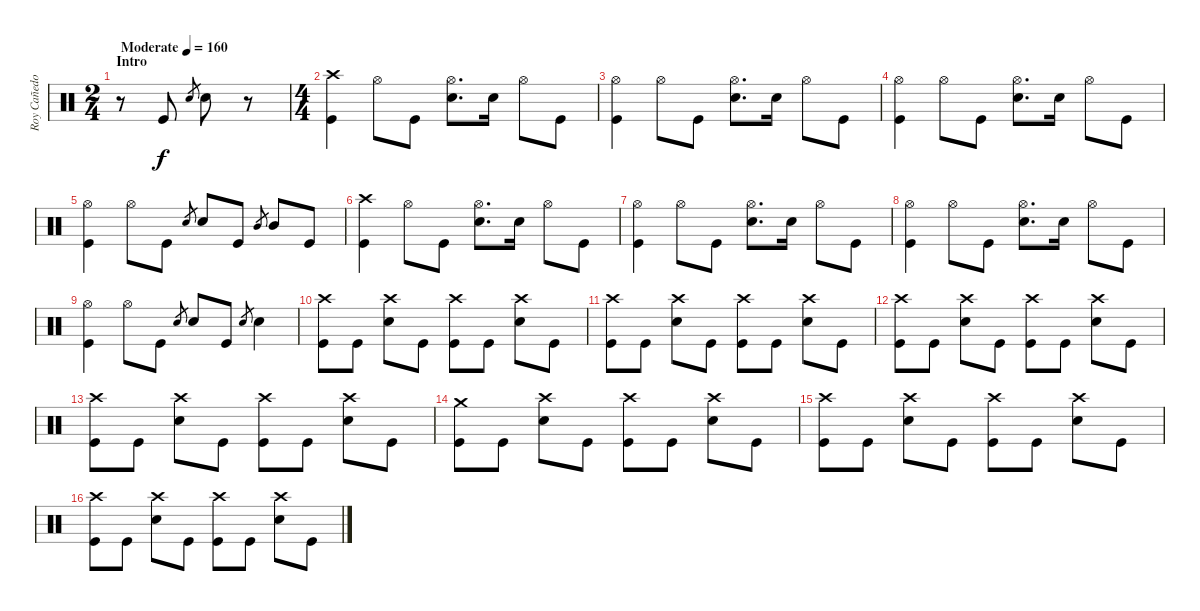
\track ("Roy Cañedo" "Roy Cañedo") {instrument percussion}
\staff {score}
\articulation defaults
\ts (2 4)
\section ("" "Intro")
\tempo (160 "Moderate")
\clef neutral
\ks c
r.8{dy f} "Kick (hit)".8 "Snare (hit) 2".8{gr} "Snare (hit) 2".8 r.8 |
\ts (4 4)
("Crash high (hit)" "Kick (hit)").4 "Hi-Hat (open)".8 "Kick (hit)".8 ("Hi-Hat (open)" "Snare (hit) 2").8{d} "Snare (hit) 2".16 "Hi-Hat (open)".8 "Kick (hit)".8 |
("Hi-Hat (open)" "Kick (hit)").4 "Hi-Hat (open)".8 "Kick (hit)".8 ("Hi-Hat (open)" "Snare (hit) 2").8{d} "Snare (hit) 2".16 "Hi-Hat (open)".8 "Kick (hit)".8 |
("Hi-Hat (open)" "Kick (hit)").4 "Hi-Hat (open)".8 "Kick (hit)".8 ("Hi-Hat (open)" "Snare (hit) 2").8{d} "Snare (hit) 2".16 "Hi-Hat (open)".8 "Kick (hit)".8 |
("Hi-Hat (open)" "Kick (hit)").4 "Hi-Hat (open)".8 "Kick (hit)".8 "Snare (hit) 2".8{gr} "Snare (hit) 2".8 "Kick (hit)".8 "Mid Tom (hit)".8{gr} "Mid Tom (hit)".8 "Kick (hit)".8 |
("Crash high (hit)" "Kick (hit)").4 "Hi-Hat (open)".8 "Kick (hit)".8 ("Hi-Hat (open)" "Snare (hit) 2").8{d} "Snare (hit) 2".16 "Hi-Hat (open)".8 "Kick (hit)".8 |
("Hi-Hat (open)" "Kick (hit)").4 "Hi-Hat (open)".8 "Kick (hit)".8 ("Hi-Hat (open)" "Snare (hit) 2").8{d} "Snare (hit) 2".16 "Hi-Hat (open)".8 "Kick (hit)".8 |
("Hi-Hat (open)" "Kick (hit)").4 "Hi-Hat (open)".8 "Kick (hit)".8 ("Hi-Hat (open)" "Snare (hit) 2").8{d} "Snare (hit) 2".16 "Hi-Hat (open)".8 "Kick (hit)".8 |
("Hi-Hat (open)" "Kick (hit)").4 "Hi-Hat (open)".8 "Kick (hit)".8 "Snare (hit) 2".8{gr} "Snare (hit) 2".8 "Kick (hit)".8 "Snare (hit) 2".8{gr} "Snare (hit) 2".4 |
("Crash high (hit)" "Kick (hit)").8 "Kick (hit)".8 ("Crash high (hit)" "Snare (hit) 2").8 "Kick (hit)".8 ("Crash high (hit)" "Kick (hit)").8 "Kick (hit)".8 ("Crash high (hit)" "Snare (hit) 2").8 "Kick (hit)".8 |
("Crash high (hit)" "Kick (hit)").8 "Kick (hit)".8 ("Crash high (hit)" "Snare (hit) 2").8 "Kick (hit)".8 ("Crash high (hit)" "Kick (hit)").8 "Kick (hit)".8 ("Crash high (hit)" "Snare (hit) 2").8 "Kick (hit)".8 |
("Crash high (hit)" "Kick (hit)").8 "Kick (hit)".8 ("Crash high (hit)" "Snare (hit) 2").8 "Kick (hit)".8 ("Crash high (hit)" "Kick (hit)").8 "Kick (hit)".8 ("Crash high (hit)" "Snare (hit) 2").8 "Kick (hit)".8 |
("Crash high (hit)" "Kick (hit)").8 "Kick (hit)".8 ("Crash high (hit)" "Snare (hit) 2").8 "Kick (hit)".8 ("Crash high (hit)" "Kick (hit)").8 "Kick (hit)".8 ("Crash high (hit)" "Snare (hit) 2").8 "Kick (hit)".8 |
("Crash medium (hit)" "Kick (hit)").8 "Kick (hit)".8 ("Crash high (hit)" "Snare (hit) 2").8 "Kick (hit)".8 ("Crash high (hit)" "Kick (hit)").8 "Kick (hit)".8 ("Crash high (hit)" "Snare (hit) 2").8 "Kick (hit)".8 |
("Crash high (hit)" "Kick (hit)").8 "Kick (hit)".8 ("Crash high (hit)" "Snare (hit) 2").8 "Kick (hit)".8 ("Crash high (hit)" "Kick (hit)").8 "Kick (hit)".8 ("Crash high (hit)" "Snare (hit) 2").8 "Kick (hit)".8 |
("Crash high (hit)" "Kick (hit)").8 "Kick (hit)".8 ("Crash high (hit)" "Snare (hit) 2").8 "Kick (hit)".8 ("Crash high (hit)" "Kick (hit)").8 "Kick (hit)".8 ("Crash high (hit)" "Snare (hit) 2").8 "Kick (hit)".8
